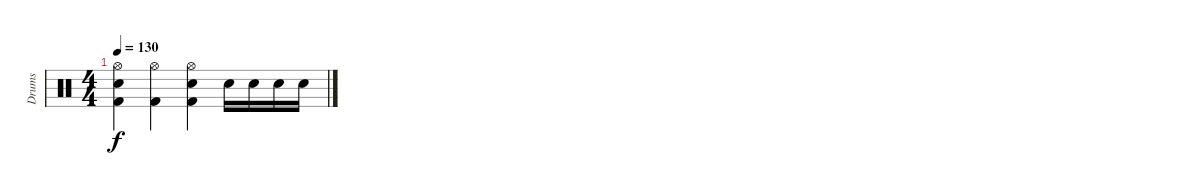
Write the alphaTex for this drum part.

\track ("Drums" "Drums") {instrument percussion}
\staff {score}
\articulation defaults
\ts (4 4)
\tempo 130
\clef neutral
\ks c
("Hi-Hat (open)" "Snare (hit) 2" "Kick (hit) 2").4{dy f} ("Hi-Hat (open)" "Kick (hit) 2").4 ("Hi-Hat (open)" "Snare (hit) 2" "Kick (hit) 2").4 "Snare (hit) 2".16 "Snare (hit) 2".16 "Snare (hit) 2".16 "Snare (hit) 2".16
